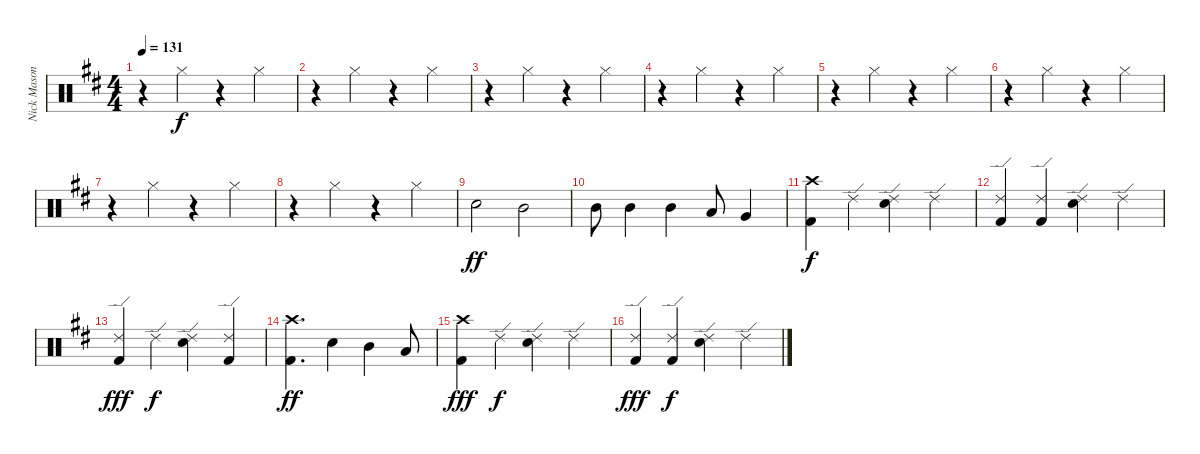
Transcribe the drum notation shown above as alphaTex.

\track ("Nick Mason" "Nick Mason") {instrument percussion}
\staff {score}
\articulation defaults
\ts (4 4)
\tempo 131
\clef neutral
\ks d
r.4{dy f} "Hi-Hat (closed)".4 r.4 "Hi-Hat (closed)".4 |
r.4 "Hi-Hat (closed)".4 r.4 "Hi-Hat (closed)".4 |
r.4 "Hi-Hat (closed)".4 r.4 "Hi-Hat (closed)".4 |
r.4 "Hi-Hat (closed)".4 r.4 "Hi-Hat (closed)".4 |
r.4 "Hi-Hat (closed)".4 r.4 "Hi-Hat (closed)".4 |
r.4 "Hi-Hat (closed)".4 r.4 "Hi-Hat (closed)".4 |
r.4 "Hi-Hat (closed)".4 r.4 "Hi-Hat (closed)".4 |
r.4 "Hi-Hat (closed)".4 r.4 "Hi-Hat (closed)".4 |
"Electric Snare (hit)".2{dy ff volume 13} "Mid Tom (hit)".2 |
"Mid Tom (hit)".8 "Mid Tom (hit)".4 "Mid Tom (hit)".4 "Low Tom (hit)".8 "Very Low Tom (hit)".4 |
("Crash high (hit)" "Kick (hit) 2").4{dy f} "Ride (edge) 2".4 ("Ride (edge) 2" "Electric Snare (hit)").4 "Ride (edge) 2".4 |
("Ride (edge) 2" "Kick (hit) 2").4 ("Ride (edge) 2" "Kick (hit) 2").4 ("Ride (edge) 2" "Electric Snare (hit)").4 "Ride (edge) 2".4 |
("Ride (edge) 2" "Kick (hit) 2").4{dy fff} "Ride (edge) 2".4{dy f} ("Ride (edge) 2" "Electric Snare (hit)").4 ("Ride (edge) 2" "Kick (hit) 2").4 |
("Crash high (hit)" "Kick (hit) 2").4{d dy ff} "Electric Snare (hit)".4 "Mid Tom (hit)".4 "Low Tom (hit)".8 |
("Crash high (hit)" "Kick (hit) 2").4{dy fff} "Ride (edge) 2".4{dy f} ("Ride (edge) 2" "Electric Snare (hit)").4 "Ride (edge) 2".4 |
("Ride (edge) 2" "Kick (hit) 2").4{dy fff} ("Ride (edge) 2" "Kick (hit) 2").4{dy f} ("Ride (edge) 2" "Electric Snare (hit)").4 "Ride (edge) 2".4
